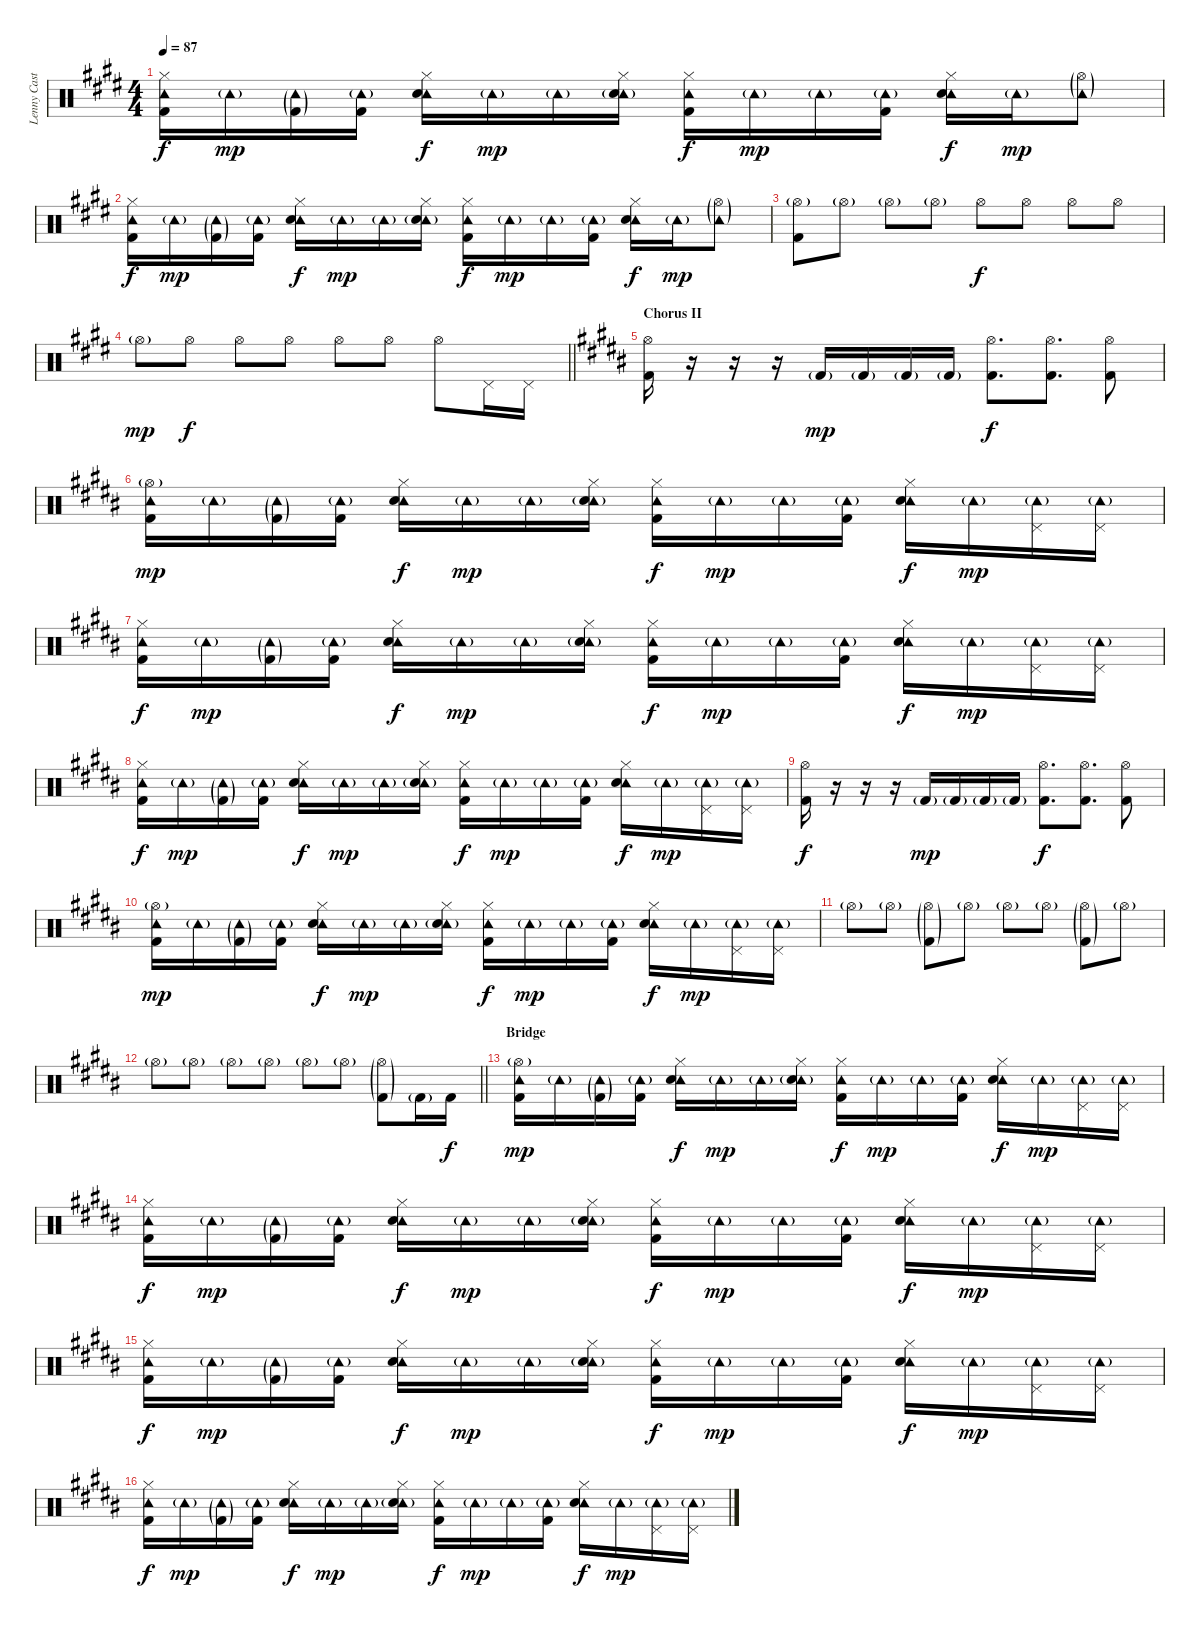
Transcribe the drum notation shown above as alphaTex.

\track ("Lenny Castro (Drums)" "Lenny Cast") {instrument percussion}
\staff {score}
\articulation defaults
\ts (4 4)
\tempo 87
\clef neutral
\ks e
("Hi-Hat (closed)" "Tambourine (hit)" "Kick (hit) 2").16{dy f} "Tambourine (hit)"{g}.16{dy mp} ("Tambourine (hit)"{g} "Kick (hit) 2"{g}).16 ("Tambourine (hit)"{g} "Kick (hit) 2").16 ("Hi-Hat (closed)" "Tambourine (hit)" "Electric Snare (hit)").16{dy f} "Tambourine (hit)"{g}.16{dy mp} "Tambourine (hit)"{g}.16 ("Hi-Hat (closed)" "Tambourine (hit)"{g} "Electric Snare (hit)"{g}).16 ("Hi-Hat (closed)" "Tambourine (hit)" "Kick (hit) 2").16{dy f} "Tambourine (hit)"{g}.16{dy mp} "Tambourine (hit)"{g}.16 ("Tambourine (hit)"{g} "Kick (hit) 2").16 ("Hi-Hat (closed)" "Tambourine (hit)" "Electric Snare (hit)").16{dy f} "Tambourine (hit)"{g}.16{dy mp} ("Hi-Hat (open)"{g} "Tambourine (hit)"{g}).8 |
("Hi-Hat (closed)" "Tambourine (hit)" "Kick (hit) 2").16{dy f} "Tambourine (hit)"{g}.16{dy mp} ("Tambourine (hit)"{g} "Kick (hit) 2"{g}).16 ("Tambourine (hit)"{g} "Kick (hit) 2").16 ("Hi-Hat (closed)" "Tambourine (hit)" "Electric Snare (hit)").16{dy f} "Tambourine (hit)"{g}.16{dy mp} "Tambourine (hit)"{g}.16 ("Hi-Hat (closed)" "Tambourine (hit)"{g} "Electric Snare (hit)"{g}).16 ("Hi-Hat (closed)" "Tambourine (hit)" "Kick (hit) 2").16{dy f} "Tambourine (hit)"{g}.16{dy mp} "Tambourine (hit)"{g}.16 ("Tambourine (hit)"{g} "Kick (hit) 2").16 ("Hi-Hat (closed)" "Tambourine (hit)" "Electric Snare (hit)").16{dy f} "Tambourine (hit)"{g}.16{dy mp} ("Hi-Hat (open)"{g} "Tambourine (hit)"{g}).8 |
("Hi-Hat (open)"{g} "Kick (hit) 2").8 "Hi-Hat (open)"{g}.8 "Hi-Hat (open)"{g}.8 "Hi-Hat (open)"{g}.8 "Hi-Hat (open)".8{dy f} "Hi-Hat (open)".8 "Hi-Hat (open)".8 "Hi-Hat (open)".8 |
\barLineRight lightlight "Hi-Hat (open)"{g}.8{dy mp} "Hi-Hat (open)".8{dy f} "Hi-Hat (open)".8 "Hi-Hat (open)".8 "Hi-Hat (open)".8 "Hi-Hat (open)".8 "Hi-Hat (open)".8 "Pedal Hi-Hat (hit)".16 "Pedal Hi-Hat (hit)".16
|
\section ("" "Chorus II")
\ks b
("Hi-Hat (open)" "Kick (hit) 2").16 r.16 r.16 r.16 "Kick (hit) 2"{g}.16{dy mp} "Kick (hit) 2"{g}.16 "Kick (hit) 2"{g}.16 "Kick (hit) 2"{g}.16 ("Hi-Hat (open)" "Kick (hit) 2").8{d dy f} ("Hi-Hat (open)" "Kick (hit) 2").8{d} ("Hi-Hat (open)" "Kick (hit) 2").8 |
("Hi-Hat (open)"{g} "Tambourine (hit)" "Kick (hit) 2").16{dy mp} "Tambourine (hit)"{g}.16 ("Tambourine (hit)"{g} "Kick (hit) 2"{g}).16 ("Tambourine (hit)"{g} "Kick (hit) 2").16 ("Hi-Hat (closed)" "Tambourine (hit)" "Electric Snare (hit)").16{dy f} "Tambourine (hit)"{g}.16{dy mp} "Tambourine (hit)"{g}.16 ("Hi-Hat (closed)" "Tambourine (hit)"{g} "Electric Snare (hit)"{g}).16 ("Hi-Hat (closed)" "Tambourine (hit)" "Kick (hit) 2").16{dy f} "Tambourine (hit)"{g}.16{dy mp} "Tambourine (hit)"{g}.16 ("Tambourine (hit)"{g} "Kick (hit) 2").16 ("Hi-Hat (closed)" "Tambourine (hit)" "Electric Snare (hit)").16{dy f} "Tambourine (hit)"{g}.16{dy mp} ("Pedal Hi-Hat (hit)" "Tambourine (hit)"{g}).16 ("Pedal Hi-Hat (hit)" "Tambourine (hit)"{g}).16 |
("Hi-Hat (closed)" "Tambourine (hit)" "Kick (hit) 2").16{dy f} "Tambourine (hit)"{g}.16{dy mp} ("Tambourine (hit)"{g} "Kick (hit) 2"{g}).16 ("Tambourine (hit)"{g} "Kick (hit) 2").16 ("Hi-Hat (closed)" "Tambourine (hit)" "Electric Snare (hit)").16{dy f} "Tambourine (hit)"{g}.16{dy mp} "Tambourine (hit)"{g}.16 ("Hi-Hat (closed)" "Tambourine (hit)"{g} "Electric Snare (hit)"{g}).16 ("Hi-Hat (closed)" "Tambourine (hit)" "Kick (hit) 2").16{dy f} "Tambourine (hit)"{g}.16{dy mp} "Tambourine (hit)"{g}.16 ("Tambourine (hit)"{g} "Kick (hit) 2").16 ("Hi-Hat (closed)" "Tambourine (hit)" "Electric Snare (hit)").16{dy f} "Tambourine (hit)"{g}.16{dy mp} ("Pedal Hi-Hat (hit)" "Tambourine (hit)"{g}).16 ("Pedal Hi-Hat (hit)" "Tambourine (hit)"{g}).16 |
("Hi-Hat (closed)" "Tambourine (hit)" "Kick (hit) 2").16{dy f} "Tambourine (hit)"{g}.16{dy mp} ("Tambourine (hit)"{g} "Kick (hit) 2"{g}).16 ("Tambourine (hit)"{g} "Kick (hit) 2").16 ("Hi-Hat (closed)" "Tambourine (hit)" "Electric Snare (hit)").16{dy f} "Tambourine (hit)"{g}.16{dy mp} "Tambourine (hit)"{g}.16 ("Hi-Hat (closed)" "Tambourine (hit)"{g} "Electric Snare (hit)"{g}).16 ("Hi-Hat (closed)" "Tambourine (hit)" "Kick (hit) 2").16{dy f} "Tambourine (hit)"{g}.16{dy mp} "Tambourine (hit)"{g}.16 ("Tambourine (hit)"{g} "Kick (hit) 2").16 ("Hi-Hat (closed)" "Tambourine (hit)" "Electric Snare (hit)").16{dy f} "Tambourine (hit)"{g}.16{dy mp} ("Pedal Hi-Hat (hit)" "Tambourine (hit)"{g}).16 ("Pedal Hi-Hat (hit)" "Tambourine (hit)"{g}).16 |
("Hi-Hat (open)" "Kick (hit) 2").16{dy f} r.16 r.16 r.16 "Kick (hit) 2"{g}.16{dy mp} "Kick (hit) 2"{g}.16 "Kick (hit) 2"{g}.16 "Kick (hit) 2"{g}.16 ("Hi-Hat (open)" "Kick (hit) 2").8{d dy f} ("Hi-Hat (open)" "Kick (hit) 2").8{d} ("Hi-Hat (open)" "Kick (hit) 2").8 |
("Hi-Hat (open)"{g} "Tambourine (hit)" "Kick (hit) 2").16{dy mp} "Tambourine (hit)"{g}.16 ("Tambourine (hit)"{g} "Kick (hit) 2"{g}).16 ("Tambourine (hit)"{g} "Kick (hit) 2").16 ("Hi-Hat (closed)" "Tambourine (hit)" "Electric Snare (hit)").16{dy f} "Tambourine (hit)"{g}.16{dy mp} "Tambourine (hit)"{g}.16 ("Hi-Hat (closed)" "Tambourine (hit)"{g} "Electric Snare (hit)"{g}).16 ("Hi-Hat (closed)" "Tambourine (hit)" "Kick (hit) 2").16{dy f} "Tambourine (hit)"{g}.16{dy mp} "Tambourine (hit)"{g}.16 ("Tambourine (hit)"{g} "Kick (hit) 2").16 ("Hi-Hat (closed)" "Tambourine (hit)" "Electric Snare (hit)").16{dy f} "Tambourine (hit)"{g}.16{dy mp} ("Pedal Hi-Hat (hit)" "Tambourine (hit)"{g}).16 ("Pedal Hi-Hat (hit)" "Tambourine (hit)"{g}).16 |
"Hi-Hat (open)"{g}.8 "Hi-Hat (open)"{g}.8 ("Hi-Hat (open)"{g} "Kick (hit) 2"{g}).8 "Hi-Hat (open)"{g}.8 "Hi-Hat (open)"{g}.8 "Hi-Hat (open)"{g}.8 ("Hi-Hat (open)"{g} "Kick (hit) 2"{g}).8 "Hi-Hat (open)"{g}.8 |
\barLineRight lightlight "Hi-Hat (open)"{g}.8 "Hi-Hat (open)"{g}.8 "Hi-Hat (open)"{g}.8 "Hi-Hat (open)"{g}.8 "Hi-Hat (open)"{g}.8 "Hi-Hat (open)"{g}.8
("Hi-Hat (open)"{g} "Kick (hit) 2"{g}).8 "Kick (hit) 2"{g}.16 "Kick (hit) 2".16{dy f} |
\section ("" "Bridge")
("Hi-Hat (open)"{g} "Tambourine (hit)" "Kick (hit) 2").16{dy mp} "Tambourine (hit)"{g}.16 ("Tambourine (hit)"{g} "Kick (hit) 2"{g}).16 ("Tambourine (hit)"{g} "Kick (hit) 2").16 ("Hi-Hat (closed)" "Tambourine (hit)" "Electric Snare (hit)").16{dy f} "Tambourine (hit)"{g}.16{dy mp} "Tambourine (hit)"{g}.16 ("Hi-Hat (closed)" "Tambourine (hit)"{g} "Electric Snare (hit)"{g}).16 ("Hi-Hat (closed)" "Tambourine (hit)" "Kick (hit) 2").16{dy f} "Tambourine (hit)"{g}.16{dy mp} "Tambourine (hit)"{g}.16 ("Tambourine (hit)"{g} "Kick (hit) 2").16 ("Hi-Hat (closed)" "Tambourine (hit)" "Electric Snare (hit)").16{dy f} "Tambourine (hit)"{g}.16{dy mp} ("Pedal Hi-Hat (hit)" "Tambourine (hit)"{g}).16 ("Pedal Hi-Hat (hit)" "Tambourine (hit)"{g}).16 |
("Hi-Hat (closed)" "Tambourine (hit)" "Kick (hit) 2").16{dy f} "Tambourine (hit)"{g}.16{dy mp} ("Tambourine (hit)"{g} "Kick (hit) 2"{g}).16 ("Tambourine (hit)"{g} "Kick (hit) 2").16 ("Hi-Hat (closed)" "Tambourine (hit)" "Electric Snare (hit)").16{dy f} "Tambourine (hit)"{g}.16{dy mp} "Tambourine (hit)"{g}.16 ("Hi-Hat (closed)" "Tambourine (hit)"{g} "Electric Snare (hit)"{g}).16 ("Hi-Hat (closed)" "Tambourine (hit)" "Kick (hit) 2").16{dy f} "Tambourine (hit)"{g}.16{dy mp} "Tambourine (hit)"{g}.16 ("Tambourine (hit)"{g} "Kick (hit) 2").16 ("Hi-Hat (closed)" "Tambourine (hit)" "Electric Snare (hit)").16{dy f} "Tambourine (hit)"{g}.16{dy mp} ("Pedal Hi-Hat (hit)" "Tambourine (hit)"{g}).16 ("Pedal Hi-Hat (hit)" "Tambourine (hit)"{g}).16 |
("Hi-Hat (closed)" "Tambourine (hit)" "Kick (hit) 2").16{dy f} "Tambourine (hit)"{g}.16{dy mp} ("Tambourine (hit)"{g} "Kick (hit) 2"{g}).16 ("Tambourine (hit)"{g} "Kick (hit) 2").16 ("Hi-Hat (closed)" "Tambourine (hit)" "Electric Snare (hit)").16{dy f} "Tambourine (hit)"{g}.16{dy mp} "Tambourine (hit)"{g}.16 ("Hi-Hat (closed)" "Tambourine (hit)"{g} "Electric Snare (hit)"{g}).16 ("Hi-Hat (closed)" "Tambourine (hit)" "Kick (hit) 2").16{dy f} "Tambourine (hit)"{g}.16{dy mp} "Tambourine (hit)"{g}.16 ("Tambourine (hit)"{g} "Kick (hit) 2").16 ("Hi-Hat (closed)" "Tambourine (hit)" "Electric Snare (hit)").16{dy f} "Tambourine (hit)"{g}.16{dy mp} ("Pedal Hi-Hat (hit)" "Tambourine (hit)"{g}).16 ("Pedal Hi-Hat (hit)" "Tambourine (hit)"{g}).16 |
("Hi-Hat (closed)" "Tambourine (hit)" "Kick (hit) 2").16{dy f} "Tambourine (hit)"{g}.16{dy mp} ("Tambourine (hit)"{g} "Kick (hit) 2"{g}).16 ("Tambourine (hit)"{g} "Kick (hit) 2").16 ("Hi-Hat (closed)" "Tambourine (hit)" "Electric Snare (hit)").16{dy f} "Tambourine (hit)"{g}.16{dy mp} "Tambourine (hit)"{g}.16 ("Hi-Hat (closed)" "Tambourine (hit)"{g} "Electric Snare (hit)"{g}).16 ("Hi-Hat (closed)" "Tambourine (hit)" "Kick (hit) 2").16{dy f} "Tambourine (hit)"{g}.16{dy mp} "Tambourine (hit)"{g}.16 ("Tambourine (hit)"{g} "Kick (hit) 2").16 ("Hi-Hat (closed)" "Tambourine (hit)" "Electric Snare (hit)").16{dy f} "Tambourine (hit)"{g}.16{dy mp} ("Pedal Hi-Hat (hit)" "Tambourine (hit)"{g}).16 ("Pedal Hi-Hat (hit)" "Tambourine (hit)"{g}).16
